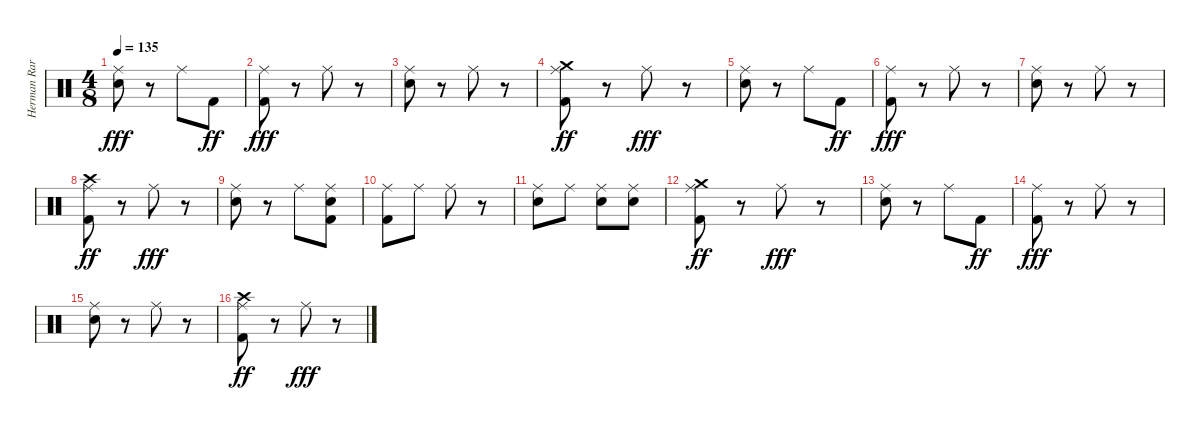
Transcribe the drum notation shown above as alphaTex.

\track ("Herman Rarebell" "Herman Rar") {instrument percussion}
\staff {score}
\articulation defaults
\ts (4 8)
\tempo 135
\clef neutral
\ks c
("Snare (hit) 2" "Ride (middle)").8{dy fff} r.8 "Ride (middle)".8 "Kick (hit) 2".8{dy ff} |
("Kick (hit) 2" "Ride (middle)").8{dy fff} r.8 "Ride (middle)".8 r.8 |
("Snare (hit) 2" "Ride (middle)").8 r.8 "Ride (middle)".8 r.8 |
("Kick (hit) 2" "Ride (middle)" "Crash medium (hit)").8{dy ff} r.8 "Ride (middle)".8{dy fff} r.8 |
("Snare (hit) 2" "Ride (middle)").8 r.8 "Ride (middle)".8 "Kick (hit) 2".8{dy ff} |
("Kick (hit) 2" "Ride (middle)").8{dy fff} r.8 "Ride (middle)".8 r.8 |
("Snare (hit) 2" "Ride (middle)").8 r.8 "Ride (middle)".8 r.8 |
("Kick (hit) 2" "Ride (middle)" "Crash high (hit)").8{dy ff} r.8 "Ride (middle)".8{dy fff} r.8 |
("Snare (hit) 2" "Ride (middle)").8 r.8 "Ride (middle)".8 ("Kick (hit) 2" "Snare (hit) 2" "Ride (middle)").8 |
("Kick (hit) 2" "Ride (middle)").8 "Ride (middle)".8 "Ride (middle)".8 r.8 |
("Snare (hit) 2" "Ride (middle)").8 "Ride (middle)".8 ("Snare (hit) 2" "Ride (middle)").8 ("Snare (hit) 2" "Ride (middle)").8 |
("Kick (hit) 2" "Ride (middle)" "Crash medium (hit)").8{dy ff} r.8 "Ride (middle)".8{dy fff} r.8 |
("Snare (hit) 2" "Ride (middle)").8 r.8 "Ride (middle)".8 "Kick (hit) 2".8{dy ff} |
("Kick (hit) 2" "Ride (middle)").8{dy fff} r.8 "Ride (middle)".8 r.8 |
("Snare (hit) 2" "Ride (middle)").8 r.8 "Ride (middle)".8 r.8 |
("Kick (hit) 2" "Ride (middle)" "Crash high (hit)").8{dy ff} r.8 "Ride (middle)".8{dy fff} r.8
